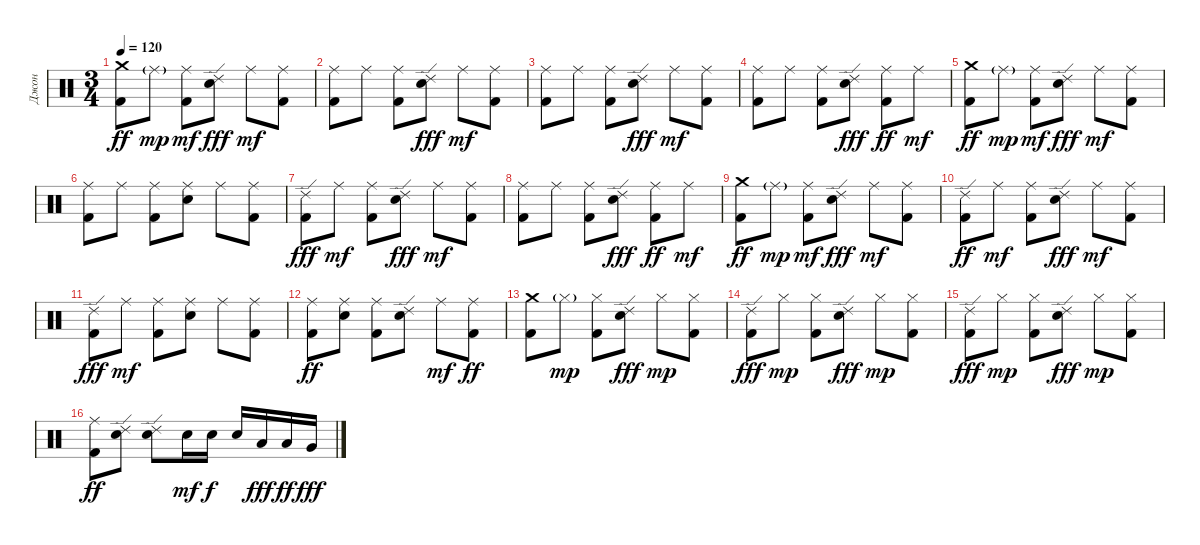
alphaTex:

\track ("Джон" "Джон") {instrument percussion}
\staff {score}
\articulation defaults
\ts (3 4)
\tempo 120
\clef neutral
\ks c
("Crash medium (hit)" "Kick (hit) 2").8{dy ff} "Ride (middle)"{g}.8{dy mp} ("Ride (middle)" "Kick (hit) 2").8{dy mf} ("Ride (edge) 2" "Electric Snare (hit)").8{dy fff} "Ride (middle)".8{dy mf} ("Ride (middle)" "Kick (hit) 2").8 |
("Ride (middle)" "Kick (hit) 2").8 "Ride (middle)".8 ("Ride (middle)" "Kick (hit) 2").8 ("Ride (edge) 2" "Electric Snare (hit)").8{dy fff} "Ride (middle)".8{dy mf} ("Ride (middle)" "Kick (hit) 2").8 |
("Ride (middle)" "Kick (hit) 2").8 "Ride (middle)".8 ("Ride (middle)" "Kick (hit) 2").8 ("Ride (edge) 2" "Electric Snare (hit)").8{dy fff} "Ride (middle)".8{dy mf} ("Ride (middle)" "Kick (hit) 2").8 |
("Ride (middle)" "Kick (hit) 2").8 "Ride (middle)".8 ("Ride (middle)" "Kick (hit) 2").8 ("Ride (edge) 2" "Electric Snare (hit)").8{dy fff} ("Ride (middle)" "Kick (hit) 2").8{dy ff} "Ride (middle)".8{dy mf} |
("Crash medium (hit)" "Kick (hit) 2").8{dy ff} "Ride (middle)"{g}.8{dy mp} ("Ride (middle)" "Kick (hit) 2").8{dy mf} ("Ride (edge) 2" "Electric Snare (hit)").8{dy fff} "Ride (middle)".8{dy mf} ("Ride (middle)" "Kick (hit) 2").8 |
("Ride (middle)" "Kick (hit) 2").8 "Ride (middle)".8 ("Ride (middle)" "Kick (hit) 2").8 ("Ride (middle)" "Electric Snare (hit)").8 "Ride (middle)".8 ("Ride (middle)" "Kick (hit) 2").8 |
("Ride (edge) 2" "Kick (hit) 2").8{dy fff} "Ride (middle)".8{dy mf} ("Ride (middle)" "Kick (hit) 2").8 ("Ride (edge) 2" "Electric Snare (hit)").8{dy fff} "Ride (middle)".8{dy mf} ("Ride (middle)" "Kick (hit) 2").8 |
("Ride (middle)" "Kick (hit) 2").8 "Ride (middle)".8 ("Ride (middle)" "Kick (hit) 2").8 ("Ride (edge) 2" "Electric Snare (hit)").8{dy fff} ("Ride (middle)" "Kick (hit) 2").8{dy ff} "Ride (middle)".8{dy mf} |
("Crash medium (hit)" "Kick (hit) 2").8{dy ff} "Ride (middle)"{g}.8{dy mp} ("Ride (middle)" "Kick (hit) 2").8{dy mf} ("Ride (edge) 2" "Electric Snare (hit)").8{dy fff} "Ride (middle)".8{dy mf} ("Ride (middle)" "Kick (hit) 2").8 |
("Ride (edge) 2" "Kick (hit) 2").8{dy ff} "Ride (middle)".8{dy mf} ("Ride (middle)" "Kick (hit) 2").8 ("Ride (edge) 2" "Electric Snare (hit)").8{dy fff} "Ride (middle)".8{dy mf} ("Ride (middle)" "Kick (hit) 2").8 |
("Ride (edge) 2" "Kick (hit) 2").8{dy fff} "Ride (middle)".8{dy mf} ("Ride (middle)" "Kick (hit) 2").8 ("Ride (middle)" "Electric Snare (hit)").8 "Ride (middle)".8 ("Ride (middle)" "Kick (hit) 2").8 |
("Ride (middle)" "Kick (hit) 2").8{dy ff} ("Ride (middle)" "Electric Snare (hit)").8 ("Ride (middle)" "Kick (hit) 2").8 ("Ride (edge) 2" "Electric Snare (hit)").8 "Ride (middle)".8{dy mf} ("Ride (middle)" "Kick (hit) 2").8{dy ff} |
("Crash medium (hit)" "Kick (hit) 2").8 "Hi-Hat (closed)"{g}.8{dy mp} ("Hi-Hat (closed)" "Kick (hit) 2").8 ("Ride (edge) 2" "Electric Snare (hit)").8{dy fff} "Hi-Hat (closed)".8{dy mp} ("Hi-Hat (closed)" "Kick (hit) 2").8 |
("Ride (edge) 2" "Kick (hit) 2").8{dy fff} "Hi-Hat (closed)".8{dy mp} ("Hi-Hat (closed)" "Kick (hit) 2").8 ("Ride (edge) 2" "Electric Snare (hit)").8{dy fff} "Hi-Hat (closed)".8{dy mp} ("Hi-Hat (closed)" "Kick (hit) 2").8 |
("Ride (edge) 2" "Kick (hit) 2").8{dy fff} "Hi-Hat (closed)".8{dy mp} ("Hi-Hat (closed)" "Kick (hit) 2").8 ("Ride (edge) 2" "Electric Snare (hit)").8{dy fff} "Hi-Hat (closed)".8{dy mp} ("Hi-Hat (closed)" "Kick (hit) 2").8 |
("Ride (middle)" "Kick (hit) 2").8{dy ff} ("Ride (edge) 2" "Electric Snare (hit)").8 ("Ride (edge) 2" "Electric Snare (hit)").8 "Electric Snare (hit)".16{dy mf} "Electric Snare (hit)".16{dy f} "Electric Snare (hit)".16 "Low Tom (hit)".16{dy fff} "Low Tom (hit)".16{dy ff} "Very Low Tom (hit)".16{dy fff}
